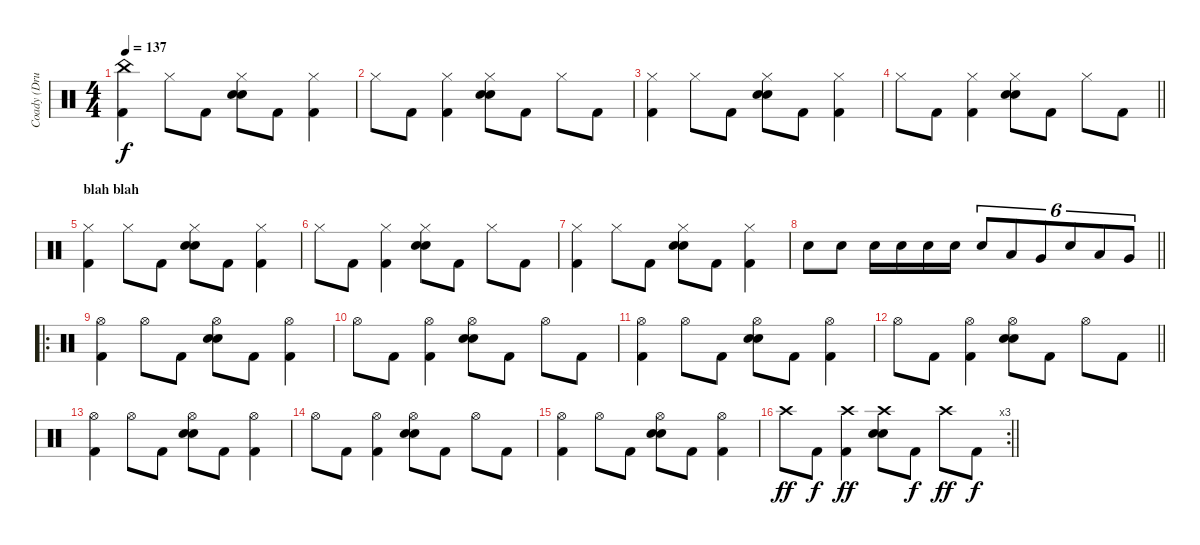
\track ("Coady (Drums 2)" "Coady (Dru") {instrument percussion}
\staff {score}
\articulation defaults
\ts (4 4)
\tempo 137
\clef neutral
\ks c
("China (hit)" "Kick (hit) 2").4{dy f} "Hi-Hat (closed)".8 "Kick (hit) 2".8 ("Hi-Hat (closed)" "Snare (hit) 2" "Electric Snare (hit)").8 "Kick (hit) 2".8 ("Kick (hit) 2" "Hi-Hat (closed)").4 |
"Hi-Hat (closed)".8 "Kick (hit) 2".8 ("Hi-Hat (closed)" "Kick (hit) 2").4 ("Hi-Hat (closed)" "Snare (hit) 2" "Electric Snare (hit)").8 "Kick (hit) 2".8 "Hi-Hat (closed)".8 "Kick (hit) 2".8 |
("Hi-Hat (closed)" "Kick (hit) 2").4 "Hi-Hat (closed)".8 "Kick (hit) 2".8 ("Hi-Hat (closed)" "Snare (hit) 2" "Electric Snare (hit)").8 "Kick (hit) 2".8 ("Kick (hit) 2" "Hi-Hat (closed)").4 |
\barLineRight lightlight "Hi-Hat (closed)".8 "Kick (hit) 2".8
("Hi-Hat (closed)" "Kick (hit) 2").4 ("Hi-Hat (closed)" "Snare (hit) 2" "Electric Snare (hit)").8 "Kick (hit) 2".8 "Hi-Hat (closed)".8 "Kick (hit) 2".8 |
\section ("" "blah blah")
("Hi-Hat (closed)" "Kick (hit) 2").4 "Hi-Hat (closed)".8 "Kick (hit) 2".8 ("Hi-Hat (closed)" "Snare (hit) 2" "Electric Snare (hit)").8 "Kick (hit) 2".8 ("Kick (hit) 2" "Hi-Hat (closed)").4 |
"Hi-Hat (closed)".8 "Kick (hit) 2".8 ("Hi-Hat (closed)" "Kick (hit) 2").4 ("Hi-Hat (closed)" "Snare (hit) 2" "Electric Snare (hit)").8 "Kick (hit) 2".8 "Hi-Hat (closed)".8 "Kick (hit) 2".8 |
("Hi-Hat (closed)" "Kick (hit) 2").4 "Hi-Hat (closed)".8 "Kick (hit) 2".8 ("Hi-Hat (closed)" "Snare (hit) 2" "Electric Snare (hit)").8 "Kick (hit) 2".8 ("Kick (hit) 2" "Hi-Hat (closed)").4 |
\barLineRight lightlight "Snare (hit) 2".8 "Snare (hit) 2".8 "Snare (hit) 2".16 "Snare (hit) 2".16 "Snare (hit) 2".16 "Snare (hit) 2".16 "Snare (hit) 2".8{tu (6 4)} "Low Tom (hit)".8{tu (6 4)} "Very Low Tom (hit)".8{tu (6 4)} "Snare (hit) 2".8{tu (6 4)} "Low Tom (hit)".8{tu (6 4)} "Very Low Tom (hit)".8{tu (6 4)}
|
\ro
("Hi-Hat (open)" "Kick (hit) 2").4 "Hi-Hat (open)".8 "Kick (hit) 2".8 ("Hi-Hat (open)" "Snare (hit) 2" "Electric Snare (hit)").8 "Kick (hit) 2".8 ("Kick (hit) 2" "Hi-Hat (open)").4 |
"Hi-Hat (open)".8 "Kick (hit) 2".8 ("Hi-Hat (open)" "Kick (hit) 2").4 ("Hi-Hat (open)" "Snare (hit) 2" "Electric Snare (hit)").8 "Kick (hit) 2".8 "Hi-Hat (open)".8 "Kick (hit) 2".8 |
("Hi-Hat (open)" "Kick (hit) 2").4 "Hi-Hat (open)".8 "Kick (hit) 2".8 ("Hi-Hat (open)" "Snare (hit) 2" "Electric Snare (hit)").8 "Kick (hit) 2".8 ("Kick (hit) 2" "Hi-Hat (open)").4 |
\barLineRight lightlight "Hi-Hat (open)".8 "Kick (hit) 2".8
("Hi-Hat (open)" "Kick (hit) 2").4 ("Hi-Hat (open)" "Snare (hit) 2" "Electric Snare (hit)").8 "Kick (hit) 2".8 "Hi-Hat (open)".8 "Kick (hit) 2".8 |
("Hi-Hat (open)" "Kick (hit) 2").4 "Hi-Hat (open)".8 "Kick (hit) 2".8 ("Hi-Hat (open)" "Snare (hit) 2" "Electric Snare (hit)").8 "Kick (hit) 2".8 ("Kick (hit) 2" "Hi-Hat (open)").4 |
"Hi-Hat (open)".8 "Kick (hit) 2".8 ("Hi-Hat (open)" "Kick (hit) 2").4 ("Hi-Hat (open)" "Snare (hit) 2" "Electric Snare (hit)").8 "Kick (hit) 2".8 "Hi-Hat (open)".8 "Kick (hit) 2".8 |
("Hi-Hat (open)" "Kick (hit) 2").4 "Hi-Hat (open)".8 "Kick (hit) 2".8 ("Hi-Hat (open)" "Snare (hit) 2" "Electric Snare (hit)").8 "Kick (hit) 2".8 ("Kick (hit) 2" "Hi-Hat (open)").4 |
\rc 3
\barLineRight lightlight "Crash high (hit)".8{dy ff} "Kick (hit) 2".8{dy f}
("Crash high (hit)" "Kick (hit) 2").4{dy ff} ("Crash high (hit)" "Snare (hit) 2" "Electric Snare (hit)").8 "Kick (hit) 2".8{dy f} "Crash high (hit)".8{dy ff} "Kick (hit) 2".8{dy f}
